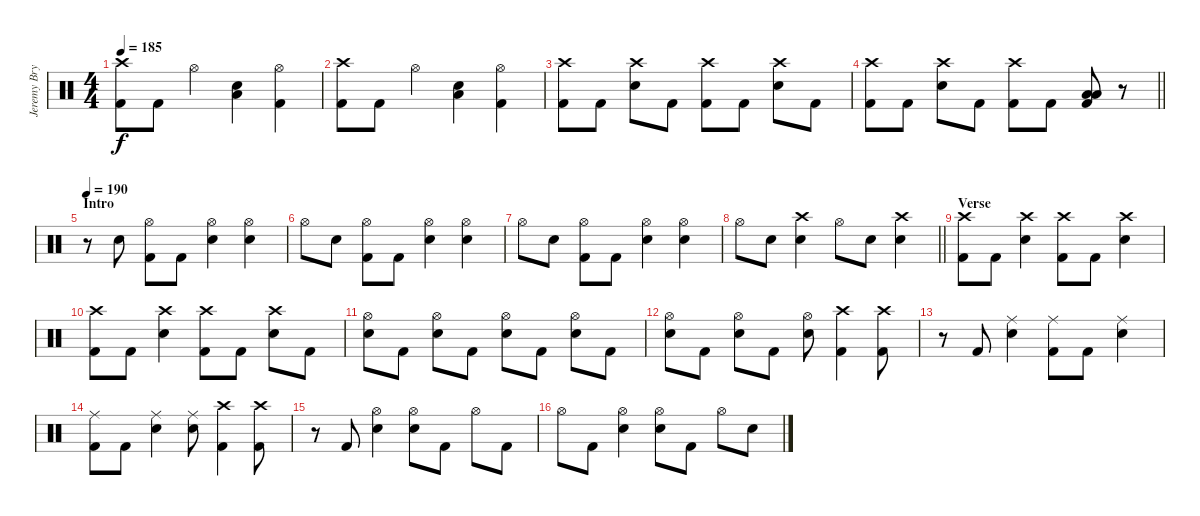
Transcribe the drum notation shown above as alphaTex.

\track ("Jeremy Bryan - Drums" "Jeremy Bry") {instrument percussion}
\staff {score}
\articulation defaults
\ts (4 4)
\tempo 185
\clef neutral
\ks c
("Crash high (hit)" "Kick (hit) 2").8{dy f} "Kick (hit) 2".8 "Hi-Hat (open)".4 ("Low Floor Tom (hit)" "Electric Snare (hit)").4 ("Hi-Hat (open)" "Kick (hit) 2").4 |
("Crash high (hit)" "Kick (hit) 2").8 "Kick (hit) 2".8 "Hi-Hat (open)".4 ("Low Floor Tom (hit)" "Electric Snare (hit)").4 ("Hi-Hat (open)" "Kick (hit) 2").4 |
("Crash high (hit)" "Kick (hit) 2").8 "Kick (hit) 2".8 ("Crash high (hit)" "Electric Snare (hit)").8 "Kick (hit) 2".8 ("Crash high (hit)" "Kick (hit) 2").8 "Kick (hit) 2".8 ("Crash high (hit)" "Electric Snare (hit)").8 "Kick (hit) 2".8 |
\barLineRight lightlight
("Crash high (hit)" "Kick (hit) 2").8 "Kick (hit) 2".8 ("Crash high (hit)" "Electric Snare (hit)").8 "Kick (hit) 2".8 ("Crash high (hit)" "Kick (hit) 2").8 "Kick (hit) 2".8 ("Low Tom (hit)" "Low Floor Tom (hit)" "Kick (hit) 2").8 r.8 |
\section ("" "Intro")
\tempo 190
r.8 "Electric Snare (hit)".8 ("Hi-Hat (open)" "Kick (hit) 2").8 "Kick (hit) 2".8 ("Hi-Hat (open)" "Electric Snare (hit)").4 ("Hi-Hat (open)" "Electric Snare (hit)").4 |
"Hi-Hat (open)".8 "Electric Snare (hit)".8 ("Hi-Hat (open)" "Kick (hit) 2").8 "Kick (hit) 2".8 ("Hi-Hat (open)" "Electric Snare (hit)").4 ("Hi-Hat (open)" "Electric Snare (hit)").4 |
"Hi-Hat (open)".8 "Electric Snare (hit)".8 ("Hi-Hat (open)" "Kick (hit) 2").8 "Kick (hit) 2".8 ("Hi-Hat (open)" "Electric Snare (hit)").4 ("Hi-Hat (open)" "Electric Snare (hit)").4 |
\barLineRight lightlight "Hi-Hat (open)".8 "Electric Snare (hit)".8
("Crash high (hit)" "Electric Snare (hit)").4 "Hi-Hat (open)".8 "Electric Snare (hit)".8 ("Crash high (hit)" "Electric Snare (hit)").4 |
\section ("" "Verse")
("Crash high (hit)" "Kick (hit) 2").8 "Kick (hit) 2".8 ("Crash high (hit)" "Electric Snare (hit)").4 ("Crash high (hit)" "Kick (hit) 2").8 "Kick (hit) 2".8 ("Crash high (hit)" "Electric Snare (hit)").4 |
("Crash high (hit)" "Kick (hit) 2").8 "Kick (hit) 2".8 ("Crash high (hit)" "Electric Snare (hit)").4 ("Crash high (hit)" "Kick (hit) 2").8 "Kick (hit) 2".8 ("Crash high (hit)" "Electric Snare (hit)").8 "Kick (hit) 2".8 |
("Hi-Hat (open)" "Electric Snare (hit)").8 "Kick (hit) 2".8 ("Hi-Hat (open)" "Electric Snare (hit)").8 "Kick (hit) 2".8 ("Hi-Hat (open)" "Electric Snare (hit)").8 "Kick (hit) 2".8 ("Hi-Hat (open)" "Electric Snare (hit)").8 "Kick (hit) 2".8 |
("Hi-Hat (open)" "Electric Snare (hit)").8 "Kick (hit) 2".8 ("Hi-Hat (open)" "Electric Snare (hit)").8 "Kick (hit) 2".8 ("Hi-Hat (open)" "Electric Snare (hit)").8 ("Crash high (hit)" "Kick (hit) 2").4 ("Crash high (hit)" "Kick (hit) 2").8 |
r.8 "Kick (hit) 2".8 ("Ride (middle)" "Electric Snare (hit)").4 ("Ride (middle)" "Kick (hit) 2").8 "Kick (hit) 2".8 ("Ride (middle)" "Electric Snare (hit)").4 |
("Ride (middle)" "Kick (hit) 2").8 "Kick (hit) 2".8 ("Ride (middle)" "Electric Snare (hit)").4 ("Ride (middle)" "Electric Snare (hit)").8 ("Crash high (hit)" "Kick (hit) 2").4 ("Crash high (hit)" "Kick (hit) 2").8 |
r.8 "Kick (hit) 2".8 ("Hi-Hat (open)" "Electric Snare (hit)").4 ("Hi-Hat (open)" "Electric Snare (hit)").8 "Kick (hit) 2".8 "Hi-Hat (open)".8 "Kick (hit) 2".8 |
"Hi-Hat (open)".8 "Kick (hit) 2".8 ("Hi-Hat (open)" "Electric Snare (hit)").4 ("Hi-Hat (open)" "Electric Snare (hit)").8 "Kick (hit) 2".8 "Hi-Hat (open)".8 "Electric Snare (hit)".8
